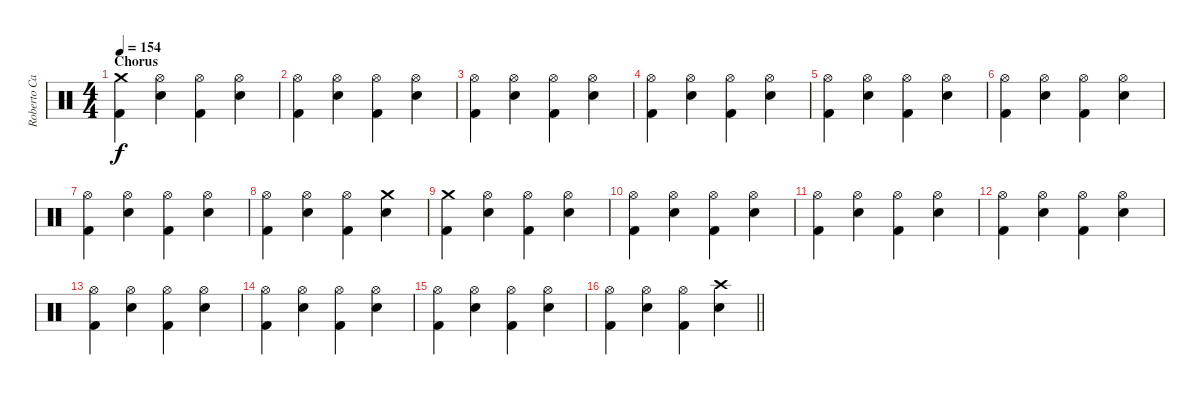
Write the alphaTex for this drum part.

\track ("Roberto Cappa - Drums" "Roberto Ca") {instrument percussion}
\staff
\articulation defaults
\ts (4 4)
\section ("" "Chorus")
\tempo 154
\clef neutral
\ks c
("Crash medium (hit)" "Kick (hit) 2").4{dy f} ("Hi-Hat (open)" "Electric Snare (hit)").4 ("Hi-Hat (open)" "Kick (hit) 2").4 ("Hi-Hat (open)" "Electric Snare (hit)").4 |
("Hi-Hat (open)" "Kick (hit) 2").4 ("Hi-Hat (open)" "Electric Snare (hit)").4 ("Hi-Hat (open)" "Kick (hit) 2").4 ("Hi-Hat (open)" "Electric Snare (hit)").4 |
("Hi-Hat (open)" "Kick (hit) 2").4 ("Hi-Hat (open)" "Electric Snare (hit)").4 ("Hi-Hat (open)" "Kick (hit) 2").4 ("Hi-Hat (open)" "Electric Snare (hit)").4 |
("Hi-Hat (open)" "Kick (hit) 2").4 ("Hi-Hat (open)" "Electric Snare (hit)").4 ("Hi-Hat (open)" "Kick (hit) 2").4 ("Hi-Hat (open)" "Electric Snare (hit)").4 |
("Hi-Hat (open)" "Kick (hit) 2").4 ("Hi-Hat (open)" "Electric Snare (hit)").4 ("Hi-Hat (open)" "Kick (hit) 2").4 ("Hi-Hat (open)" "Electric Snare (hit)").4 |
("Hi-Hat (open)" "Kick (hit) 2").4 ("Hi-Hat (open)" "Electric Snare (hit)").4 ("Hi-Hat (open)" "Kick (hit) 2").4 ("Hi-Hat (open)" "Electric Snare (hit)").4 |
("Hi-Hat (open)" "Kick (hit) 2").4 ("Hi-Hat (open)" "Electric Snare (hit)").4 ("Hi-Hat (open)" "Kick (hit) 2").4 ("Hi-Hat (open)" "Electric Snare (hit)").4 |
("Hi-Hat (open)" "Kick (hit) 2").4 ("Hi-Hat (open)" "Electric Snare (hit)").4 ("Hi-Hat (open)" "Kick (hit) 2").4 ("Crash medium (hit)" "Electric Snare (hit)").4 |
("Crash medium (hit)" "Kick (hit) 2").4 ("Hi-Hat (open)" "Electric Snare (hit)").4 ("Hi-Hat (open)" "Kick (hit) 2").4 ("Hi-Hat (open)" "Electric Snare (hit)").4 |
("Hi-Hat (open)" "Kick (hit) 2").4 ("Hi-Hat (open)" "Electric Snare (hit)").4 ("Hi-Hat (open)" "Kick (hit) 2").4 ("Hi-Hat (open)" "Electric Snare (hit)").4 |
("Hi-Hat (open)" "Kick (hit) 2").4 ("Hi-Hat (open)" "Electric Snare (hit)").4 ("Hi-Hat (open)" "Kick (hit) 2").4 ("Hi-Hat (open)" "Electric Snare (hit)").4 |
("Hi-Hat (open)" "Kick (hit) 2").4 ("Hi-Hat (open)" "Electric Snare (hit)").4 ("Hi-Hat (open)" "Kick (hit) 2").4 ("Hi-Hat (open)" "Electric Snare (hit)").4 |
("Hi-Hat (open)" "Kick (hit) 2").4 ("Hi-Hat (open)" "Electric Snare (hit)").4 ("Hi-Hat (open)" "Kick (hit) 2").4 ("Hi-Hat (open)" "Electric Snare (hit)").4 |
("Hi-Hat (open)" "Kick (hit) 2").4 ("Hi-Hat (open)" "Electric Snare (hit)").4 ("Hi-Hat (open)" "Kick (hit) 2").4 ("Hi-Hat (open)" "Electric Snare (hit)").4 |
("Hi-Hat (open)" "Kick (hit) 2").4 ("Hi-Hat (open)" "Electric Snare (hit)").4 ("Hi-Hat (open)" "Kick (hit) 2").4 ("Hi-Hat (open)" "Electric Snare (hit)").4 |
\barLineRight lightlight
("Hi-Hat (open)" "Kick (hit) 2").4 ("Hi-Hat (open)" "Electric Snare (hit)").4 ("Hi-Hat (open)" "Kick (hit) 2").4 ("Crash high (hit)" "Electric Snare (hit)").4
